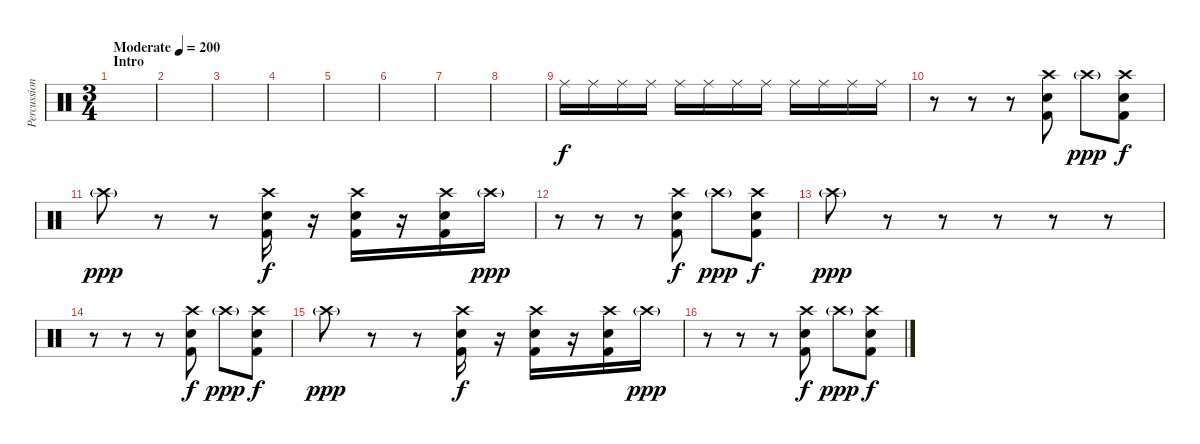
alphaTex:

\track ("Percussion" "Percussion") {instrument percussion}
\staff {score}
\articulation defaults
\ts (3 4)
\section ("" "Intro")
\tempo (200 "Moderate")
\clef neutral
\ks c
|
|
|
|
|
|
|
|
"Ride (middle)".16{volume 16} "Ride (middle)".16 "Ride (middle)".16 "Ride (middle)".16 "Ride (middle)".16 "Ride (middle)".16 "Ride (middle)".16 "Ride (middle)".16 "Ride (middle)".16 "Ride (middle)".16 "Ride (middle)".16 "Ride (middle)".16 |
r.8 r.8 r.8 ("Crash high (hit)" "Electric Snare (hit)" "Kick (hit) 2").8 "Crash high (hit)"{g}.8{dy ppp} ("Crash high (hit)" "Electric Snare (hit)" "Kick (hit) 2").8{dy f} |
"Crash high (hit)"{g}.8{dy ppp} r.8 r.8 ("Crash high (hit)" "Electric Snare (hit)" "Kick (hit) 2").16{dy f} r.16 ("Crash high (hit)" "Electric Snare (hit)" "Kick (hit) 2").16 r.16 ("Crash high (hit)" "Electric Snare (hit)" "Kick (hit) 2").16 "Crash high (hit)"{g}.16{dy ppp} |
r.8 r.8 r.8 ("Crash high (hit)" "Electric Snare (hit)" "Kick (hit) 2").8{dy f} "Crash high (hit)"{g}.8{dy ppp} ("Crash high (hit)" "Electric Snare (hit)" "Kick (hit) 2").8{dy f} |
"Crash high (hit)"{g}.8{dy ppp} r.8 r.8 r.8 r.8 r.8 |
r.8 r.8 r.8 ("Crash high (hit)" "Electric Snare (hit)" "Kick (hit) 2").8{dy f} "Crash high (hit)"{g}.8{dy ppp} ("Crash high (hit)" "Electric Snare (hit)" "Kick (hit) 2").8{dy f} |
"Crash high (hit)"{g}.8{dy ppp} r.8 r.8 ("Crash high (hit)" "Electric Snare (hit)" "Kick (hit) 2").16{dy f} r.16 ("Crash high (hit)" "Electric Snare (hit)" "Kick (hit) 2").16 r.16 ("Crash high (hit)" "Electric Snare (hit)" "Kick (hit) 2").16 "Crash high (hit)"{g}.16{dy ppp} |
r.8 r.8 r.8 ("Crash high (hit)" "Electric Snare (hit)" "Kick (hit) 2").8{dy f} "Crash high (hit)"{g}.8{dy ppp} ("Crash high (hit)" "Electric Snare (hit)" "Kick (hit) 2").8{dy f}
